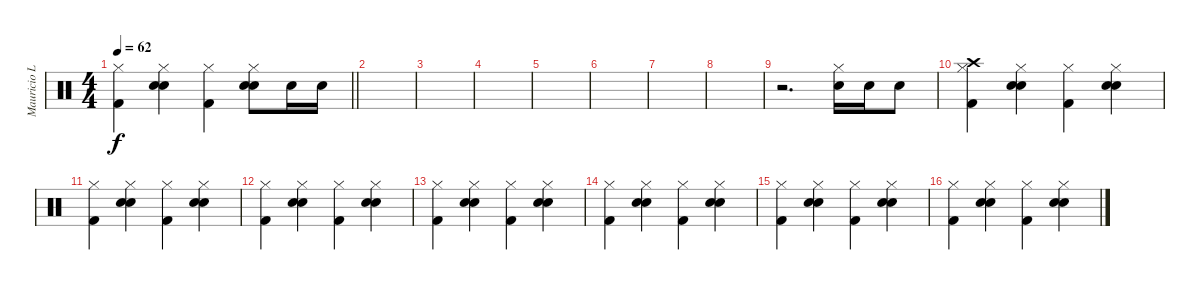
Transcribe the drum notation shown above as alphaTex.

\track ("Mauricio Loza" "Mauricio L") {instrument percussion}
\staff {score}
\articulation defaults
\ts (4 4)
\tempo 62
\clef neutral
\barLineRight lightlight
\ks c
("Hi-Hat (closed)" "Kick (hit) 2").4{dy f} ("Hi-Hat (closed)" "Electric Snare (hit)" "Hand Clap (hit)").4 ("Hi-Hat (closed)" "Kick (hit) 2").4 ("Hi-Hat (closed)" "Electric Snare (hit)" "Hand Clap (hit)").8 "Electric Snare (hit)".16 "Electric Snare (hit)".16 |
|
|
|
|
|
|
|
r.2{d} ("Hi-Hat (closed)" "Electric Snare (hit)").16 "Electric Snare (hit)".16 "Electric Snare (hit)".8 |
("Hi-Hat (closed)" "Crash high (hit)" "Kick (hit) 2").4{volume 13} ("Hi-Hat (closed)" "Electric Snare (hit)" "Hand Clap (hit)").4 ("Hi-Hat (closed)" "Kick (hit) 2").4 ("Hi-Hat (closed)" "Electric Snare (hit)" "Hand Clap (hit)").4 |
("Hi-Hat (closed)" "Kick (hit) 2").4 ("Hi-Hat (closed)" "Electric Snare (hit)" "Hand Clap (hit)").4 ("Hi-Hat (closed)" "Kick (hit) 2").4 ("Hi-Hat (closed)" "Electric Snare (hit)" "Hand Clap (hit)").4 |
("Hi-Hat (closed)" "Kick (hit) 2").4 ("Hi-Hat (closed)" "Electric Snare (hit)" "Hand Clap (hit)").4 ("Hi-Hat (closed)" "Kick (hit) 2").4 ("Hi-Hat (closed)" "Electric Snare (hit)" "Hand Clap (hit)").4 |
("Hi-Hat (closed)" "Kick (hit) 2").4 ("Hi-Hat (closed)" "Electric Snare (hit)" "Hand Clap (hit)").4 ("Hi-Hat (closed)" "Kick (hit) 2").4 ("Hi-Hat (closed)" "Electric Snare (hit)" "Hand Clap (hit)").4 |
("Hi-Hat (closed)" "Kick (hit) 2").4 ("Hi-Hat (closed)" "Electric Snare (hit)" "Hand Clap (hit)").4 ("Hi-Hat (closed)" "Kick (hit) 2").4 ("Hi-Hat (closed)" "Electric Snare (hit)" "Hand Clap (hit)").4 |
("Hi-Hat (closed)" "Kick (hit) 2").4 ("Hi-Hat (closed)" "Electric Snare (hit)" "Hand Clap (hit)").4 ("Hi-Hat (closed)" "Kick (hit) 2").4 ("Hi-Hat (closed)" "Electric Snare (hit)" "Hand Clap (hit)").4 |
("Hi-Hat (closed)" "Kick (hit) 2").4 ("Hi-Hat (closed)" "Electric Snare (hit)" "Hand Clap (hit)").4 ("Hi-Hat (closed)" "Kick (hit) 2").4 ("Hi-Hat (closed)" "Electric Snare (hit)" "Hand Clap (hit)").4
